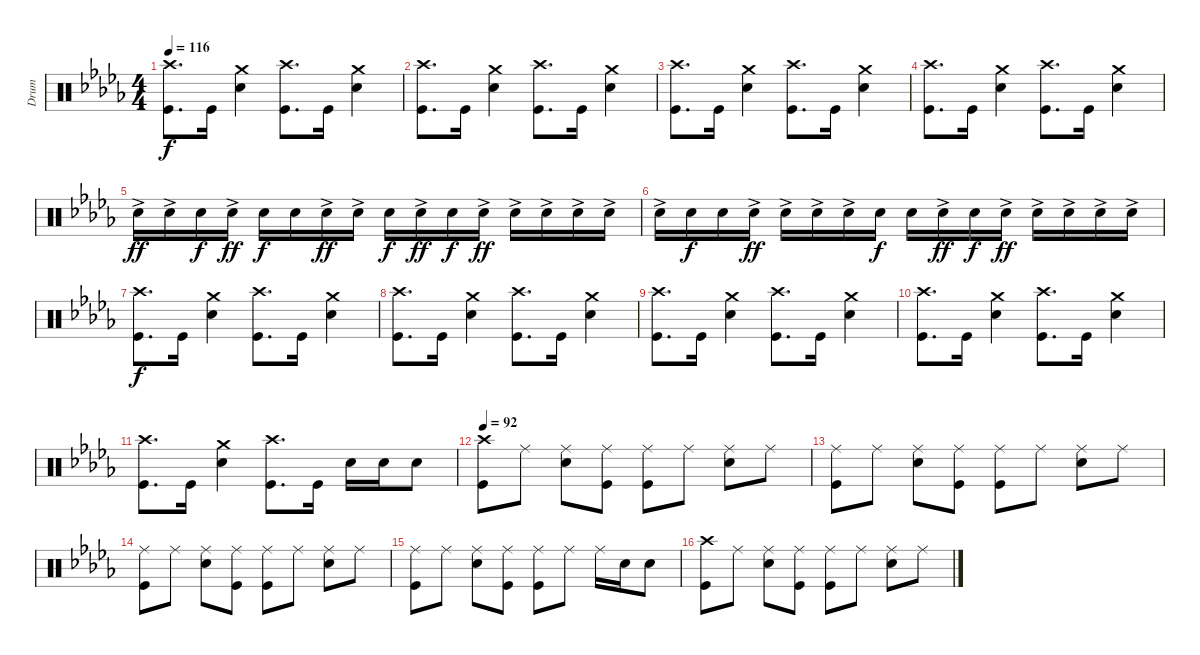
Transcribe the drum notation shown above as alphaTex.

\track ("Drum" "Drum") {instrument percussion}
\staff {score}
\articulation defaults
\ts (4 4)
\tempo 116
\clef neutral
\ks db
("Crash high (hit)" "Kick (hit)").8{d dy f} "Kick (hit)".16 ("Crash medium (hit)" "Snare (hit) 2").4 ("Crash high (hit)" "Kick (hit)").8{d} "Kick (hit)".16 ("Crash medium (hit)" "Snare (hit) 2").4 |
("Crash high (hit)" "Kick (hit)").8{d} "Kick (hit)".16 ("Crash medium (hit)" "Snare (hit) 2").4 ("Crash high (hit)" "Kick (hit)").8{d} "Kick (hit)".16 ("Crash medium (hit)" "Snare (hit) 2").4 |
("Crash high (hit)" "Kick (hit)").8{d} "Kick (hit)".16 ("Crash medium (hit)" "Snare (hit) 2").4 ("Crash high (hit)" "Kick (hit)").8{d} "Kick (hit)".16 ("Crash medium (hit)" "Snare (hit) 2").4 |
("Crash high (hit)" "Kick (hit)").8{d} "Kick (hit)".16 ("Crash medium (hit)" "Snare (hit) 2").4 ("Crash high (hit)" "Kick (hit)").8{d} "Kick (hit)".16 ("Crash medium (hit)" "Snare (hit) 2").4 |
"Snare (hit) 2"{ac}.16{dy ff} "Snare (hit) 2"{ac}.16 "Snare (hit) 2".16{dy f} "Snare (hit) 2"{ac}.16{dy ff} "Snare (hit) 2".16{dy f} "Snare (hit) 2".16 "Snare (hit) 2"{ac}.16{dy ff} "Snare (hit) 2"{ac}.16 "Snare (hit) 2".16{dy f} "Snare (hit) 2"{ac}.16{dy ff} "Snare (hit) 2".16{dy f} "Snare (hit) 2"{ac}.16{dy ff} "Snare (hit) 2"{ac}.16 "Snare (hit) 2"{ac}.16 "Snare (hit) 2"{ac}.16 "Snare (hit) 2"{ac}.16 |
"Snare (hit) 2"{ac}.16 "Snare (hit) 2".16{dy f} "Snare (hit) 2".16 "Snare (hit) 2"{ac}.16{dy ff} "Snare (hit) 2"{ac}.16 "Snare (hit) 2"{ac}.16 "Snare (hit) 2"{ac}.16 "Snare (hit) 2".16{dy f} "Snare (hit) 2".16 "Snare (hit) 2"{ac}.16{dy ff} "Snare (hit) 2".16{dy f} "Snare (hit) 2"{ac}.16{dy ff} "Snare (hit) 2"{ac}.16 "Snare (hit) 2"{ac}.16 "Snare (hit) 2"{ac}.16 "Snare (hit) 2"{ac}.16 |
("Crash high (hit)" "Kick (hit)").8{d dy f} "Kick (hit)".16 ("Crash medium (hit)" "Snare (hit) 2").4 ("Crash high (hit)" "Kick (hit)").8{d} "Kick (hit)".16 ("Crash medium (hit)" "Snare (hit) 2").4 |
("Crash high (hit)" "Kick (hit)").8{d} "Kick (hit)".16 ("Crash medium (hit)" "Snare (hit) 2").4 ("Crash high (hit)" "Kick (hit)").8{d} "Kick (hit)".16 ("Crash medium (hit)" "Snare (hit) 2").4 |
("Crash high (hit)" "Kick (hit)").8{d} "Kick (hit)".16 ("Crash medium (hit)" "Snare (hit) 2").4 ("Crash high (hit)" "Kick (hit)").8{d} "Kick (hit)".16 ("Crash medium (hit)" "Snare (hit) 2").4 |
("Crash high (hit)" "Kick (hit)").8{d} "Kick (hit)".16 ("Crash medium (hit)" "Snare (hit) 2").4 ("Crash high (hit)" "Kick (hit)").8{d} "Kick (hit)".16 ("Crash medium (hit)" "Snare (hit) 2").4 |
("Crash high (hit)" "Kick (hit)").8{d} "Kick (hit)".16 ("Crash medium (hit)" "Snare (hit) 2").4 ("Crash high (hit)" "Kick (hit)").8{d} "Kick (hit)".16 "Snare (hit) 2".16 "Snare (hit) 2".16 "Snare (hit) 2".8 |
\tempo 92
("Crash high (hit)" "Kick (hit)").8 "Ride (middle)".8 ("Ride (middle)" "Snare (hit) 2").8 ("Ride (middle)" "Kick (hit)").8 ("Ride (middle)" "Kick (hit)").8 "Ride (middle)".8 ("Ride (middle)" "Snare (hit) 2").8 "Ride (middle)".8 |
("Ride (middle)" "Kick (hit)").8 "Ride (middle)".8 ("Ride (middle)" "Snare (hit) 2").8 ("Ride (middle)" "Kick (hit)").8 ("Ride (middle)" "Kick (hit)").8 "Ride (middle)".8 ("Ride (middle)" "Snare (hit) 2").8 "Ride (middle)".8 |
("Ride (middle)" "Kick (hit)").8 "Ride (middle)".8 ("Ride (middle)" "Snare (hit) 2").8 ("Ride (middle)" "Kick (hit)").8 ("Ride (middle)" "Kick (hit)").8 "Ride (middle)".8 ("Ride (middle)" "Snare (hit) 2").8 "Ride (middle)".8 |
("Ride (middle)" "Kick (hit)").8 "Ride (middle)".8 ("Ride (middle)" "Snare (hit) 2").8 ("Ride (middle)" "Kick (hit)").8 ("Ride (middle)" "Kick (hit)").8 "Ride (middle)".8 "Ride (middle)".16 "Snare (hit) 2".16 "Snare (hit) 2".8 |
("Crash high (hit)" "Kick (hit)").8 "Ride (middle)".8 ("Ride (middle)" "Snare (hit) 2").8 ("Ride (middle)" "Kick (hit)").8 ("Ride (middle)" "Kick (hit)").8 "Ride (middle)".8 ("Ride (middle)" "Snare (hit) 2").8 "Ride (middle)".8
